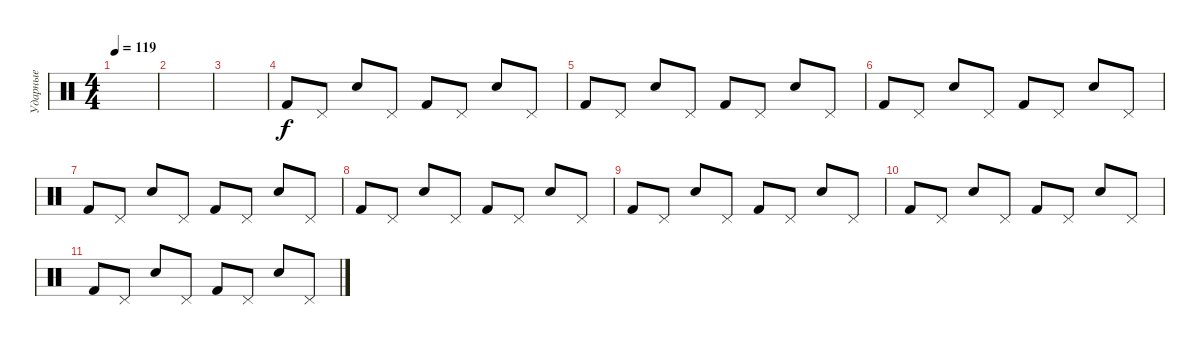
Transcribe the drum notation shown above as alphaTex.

\track ("Ударные" "Ударные") {instrument percussion}
\staff {score}
\articulation defaults
\ts (4 4)
\tempo 119
\clef neutral
\ks c
|
|
|
"Kick (hit) 2".8 "Pedal Hi-Hat (hit)".8 "Electric Snare (hit)".8 "Pedal Hi-Hat (hit)".8 "Kick (hit) 2".8 "Pedal Hi-Hat (hit)".8 "Electric Snare (hit)".8 "Pedal Hi-Hat (hit)".8 |
"Kick (hit) 2".8 "Pedal Hi-Hat (hit)".8 "Electric Snare (hit)".8 "Pedal Hi-Hat (hit)".8 "Kick (hit) 2".8 "Pedal Hi-Hat (hit)".8 "Electric Snare (hit)".8 "Pedal Hi-Hat (hit)".8 |
"Kick (hit) 2".8 "Pedal Hi-Hat (hit)".8 "Electric Snare (hit)".8 "Pedal Hi-Hat (hit)".8 "Kick (hit) 2".8 "Pedal Hi-Hat (hit)".8 "Electric Snare (hit)".8 "Pedal Hi-Hat (hit)".8 |
"Kick (hit) 2".8 "Pedal Hi-Hat (hit)".8 "Electric Snare (hit)".8 "Pedal Hi-Hat (hit)".8 "Kick (hit) 2".8 "Pedal Hi-Hat (hit)".8 "Electric Snare (hit)".8 "Pedal Hi-Hat (hit)".8 |
"Kick (hit) 2".8 "Pedal Hi-Hat (hit)".8 "Electric Snare (hit)".8 "Pedal Hi-Hat (hit)".8 "Kick (hit) 2".8 "Pedal Hi-Hat (hit)".8 "Electric Snare (hit)".8 "Pedal Hi-Hat (hit)".8 |
"Kick (hit) 2".8 "Pedal Hi-Hat (hit)".8 "Electric Snare (hit)".8 "Pedal Hi-Hat (hit)".8 "Kick (hit) 2".8 "Pedal Hi-Hat (hit)".8 "Electric Snare (hit)".8 "Pedal Hi-Hat (hit)".8 |
"Kick (hit) 2".8 "Pedal Hi-Hat (hit)".8 "Electric Snare (hit)".8 "Pedal Hi-Hat (hit)".8 "Kick (hit) 2".8 "Pedal Hi-Hat (hit)".8 "Electric Snare (hit)".8 "Pedal Hi-Hat (hit)".8 |
"Kick (hit) 2".8 "Pedal Hi-Hat (hit)".8 "Electric Snare (hit)".8 "Pedal Hi-Hat (hit)".8 "Kick (hit) 2".8 "Pedal Hi-Hat (hit)".8 "Electric Snare (hit)".8 "Pedal Hi-Hat (hit)".8
